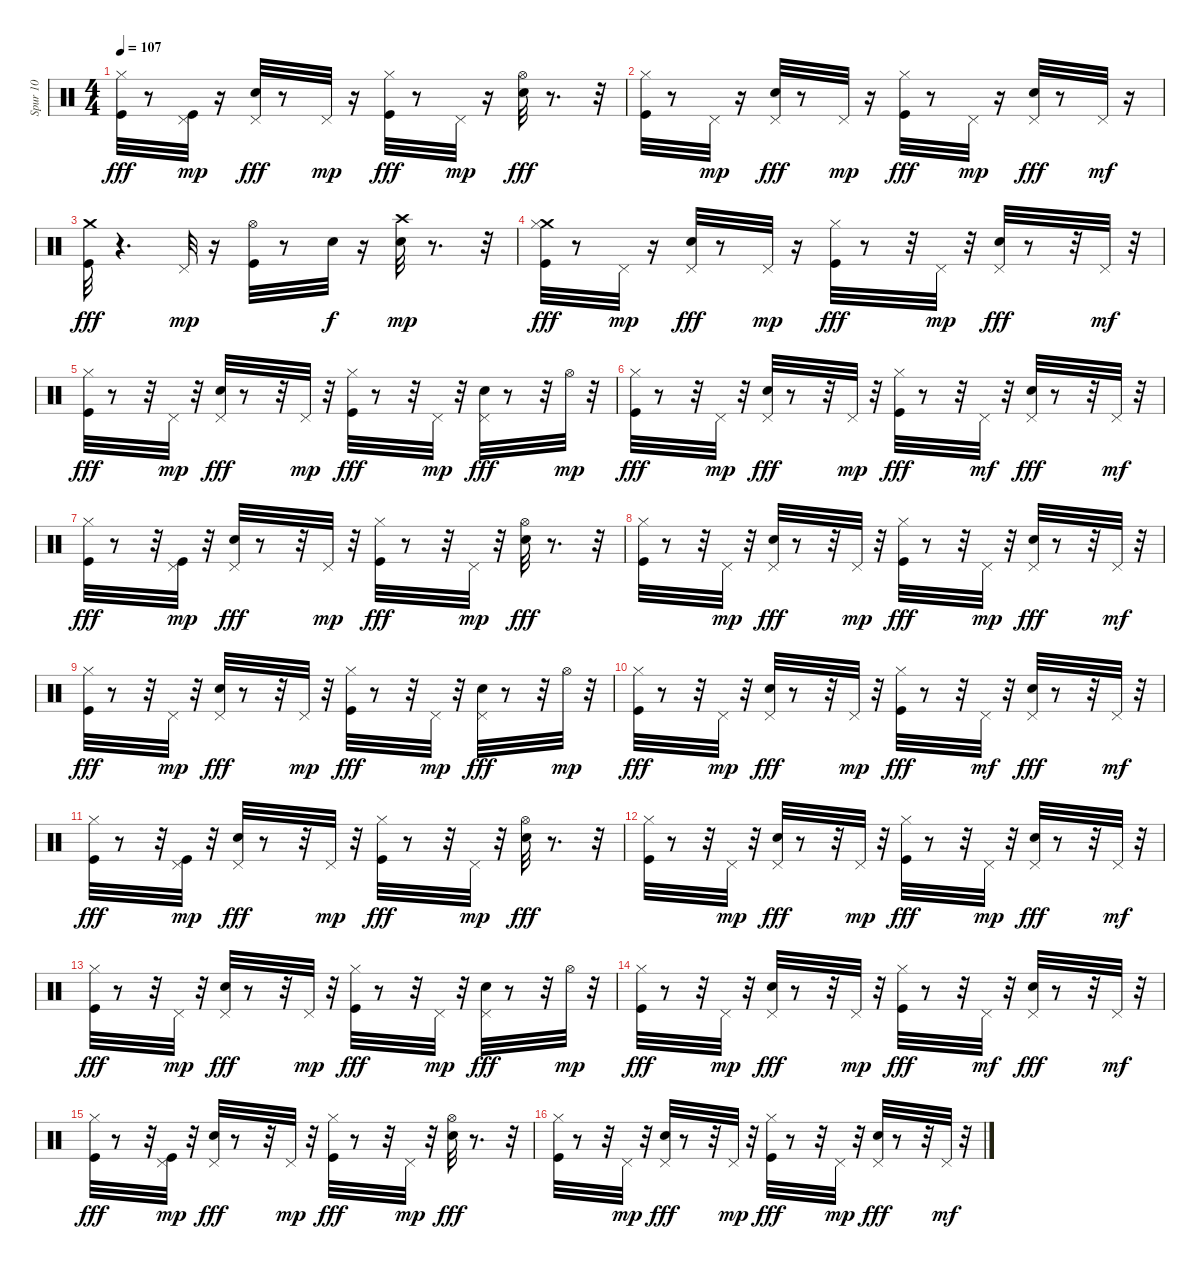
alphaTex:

\track ("Spur 10" "Spur 10") {instrument percussion}
\staff {score}
\articulation defaults
\ts (4 4)
\tempo 107
\clef neutral
\ks c
("Hi-Hat (closed)" "Kick (hit)").32{dy fff} r.8 ("Pedal Hi-Hat (hit)" "Kick (hit)").32{dy mp} r.16 ("Pedal Hi-Hat (hit)" "Snare (hit) 2").32{dy fff} r.8 "Pedal Hi-Hat (hit)".32{dy mp} r.16 ("Hi-Hat (closed)" "Kick (hit)").32{dy fff} r.8 "Pedal Hi-Hat (hit)".32{dy mp} r.16 ("Hi-Hat (open)" "Snare (hit) 2").32{dy fff} r.8{d} r.32 |
("Hi-Hat (closed)" "Kick (hit)").32 r.8 "Pedal Hi-Hat (hit)".32{dy mp} r.16 ("Pedal Hi-Hat (hit)" "Snare (hit) 2").32{dy fff} r.8 "Pedal Hi-Hat (hit)".32{dy mp} r.16 ("Hi-Hat (closed)" "Kick (hit)").32{dy fff} r.8 "Pedal Hi-Hat (hit)".32{dy mp} r.16 ("Pedal Hi-Hat (hit)" "Snare (hit) 2").32{dy fff} r.8 "Pedal Hi-Hat (hit)".32{dy mf} r.16 |
("Crash medium (hit)" "Kick (hit)").32{dy fff} r.4{d} "Pedal Hi-Hat (hit)".32{dy mp} r.16 ("Kick (hit)" "Hi-Hat (open)").32 r.8 "Snare (hit) 2".32{dy f} r.16 ("Snare (hit) 2" "Crash high (hit)").32{dy mp} r.8{d} r.32 |
("Crash medium (hit)" "Hi-Hat (closed)" "Kick (hit)").32{dy fff} r.8 "Pedal Hi-Hat (hit)".32{dy mp} r.16 ("Pedal Hi-Hat (hit)" "Snare (hit) 2").32{dy fff} r.8 "Pedal Hi-Hat (hit)".32{dy mp} r.16 ("Hi-Hat (closed)" "Kick (hit)").32{dy fff} r.8 r.32 "Pedal Hi-Hat (hit)".32{dy mp} r.32 ("Pedal Hi-Hat (hit)" "Snare (hit) 2").32{dy fff} r.8 r.32 "Pedal Hi-Hat (hit)".32{dy mf} r.32 |
("Hi-Hat (closed)" "Kick (hit)").32{dy fff} r.8 r.32 "Pedal Hi-Hat (hit)".32{dy mp} r.32 ("Pedal Hi-Hat (hit)" "Snare (hit) 2").32{dy fff} r.8 r.32 "Pedal Hi-Hat (hit)".32{dy mp} r.32 ("Hi-Hat (closed)" "Kick (hit)").32{dy fff} r.8 r.32 "Pedal Hi-Hat (hit)".32{dy mp} r.32 ("Pedal Hi-Hat (hit)" "Snare (hit) 2").32{dy fff} r.8 r.32 "Hi-Hat (open)".32{dy mp} r.32 |
("Hi-Hat (closed)" "Kick (hit)").32{dy fff} r.8 r.32 "Pedal Hi-Hat (hit)".32{dy mp} r.32 ("Pedal Hi-Hat (hit)" "Snare (hit) 2").32{dy fff} r.8 r.32 "Pedal Hi-Hat (hit)".32{dy mp} r.32 ("Hi-Hat (closed)" "Kick (hit)").32{dy fff} r.8 r.32 "Pedal Hi-Hat (hit)".32{dy mf} r.32 ("Pedal Hi-Hat (hit)" "Snare (hit) 2").32{dy fff} r.8 r.32 "Pedal Hi-Hat (hit)".32{dy mf} r.32 |
("Hi-Hat (closed)" "Kick (hit)").32{dy fff} r.8 r.32 ("Pedal Hi-Hat (hit)" "Kick (hit)").32{dy mp} r.32 ("Pedal Hi-Hat (hit)" "Snare (hit) 2").32{dy fff} r.8 r.32 "Pedal Hi-Hat (hit)".32{dy mp} r.32 ("Hi-Hat (closed)" "Kick (hit)").32{dy fff} r.8 r.32 "Pedal Hi-Hat (hit)".32{dy mp} r.32 ("Hi-Hat (open)" "Snare (hit) 2").32{dy fff} r.8{d} r.32 |
("Hi-Hat (closed)" "Kick (hit)").32 r.8 r.32 "Pedal Hi-Hat (hit)".32{dy mp} r.32 ("Pedal Hi-Hat (hit)" "Snare (hit) 2").32{dy fff} r.8 r.32 "Pedal Hi-Hat (hit)".32{dy mp} r.32 ("Hi-Hat (closed)" "Kick (hit)").32{dy fff} r.8 r.32 "Pedal Hi-Hat (hit)".32{dy mp} r.32 ("Pedal Hi-Hat (hit)" "Snare (hit) 2").32{dy fff} r.8 r.32 "Pedal Hi-Hat (hit)".32{dy mf} r.32 |
("Hi-Hat (closed)" "Kick (hit)").32{dy fff} r.8 r.32 "Pedal Hi-Hat (hit)".32{dy mp} r.32 ("Pedal Hi-Hat (hit)" "Snare (hit) 2").32{dy fff} r.8 r.32 "Pedal Hi-Hat (hit)".32{dy mp} r.32 ("Hi-Hat (closed)" "Kick (hit)").32{dy fff} r.8 r.32 "Pedal Hi-Hat (hit)".32{dy mp} r.32 ("Pedal Hi-Hat (hit)" "Snare (hit) 2").32{dy fff} r.8 r.32 "Hi-Hat (open)".32{dy mp} r.32 |
("Hi-Hat (closed)" "Kick (hit)").32{dy fff} r.8 r.32 "Pedal Hi-Hat (hit)".32{dy mp} r.32 ("Pedal Hi-Hat (hit)" "Snare (hit) 2").32{dy fff} r.8 r.32 "Pedal Hi-Hat (hit)".32{dy mp} r.32 ("Hi-Hat (closed)" "Kick (hit)").32{dy fff} r.8 r.32 "Pedal Hi-Hat (hit)".32{dy mf} r.32 ("Pedal Hi-Hat (hit)" "Snare (hit) 2").32{dy fff} r.8 r.32 "Pedal Hi-Hat (hit)".32{dy mf} r.32 |
("Hi-Hat (closed)" "Kick (hit)").32{dy fff} r.8 r.32 ("Pedal Hi-Hat (hit)" "Kick (hit)").32{dy mp} r.32 ("Pedal Hi-Hat (hit)" "Snare (hit) 2").32{dy fff} r.8 r.32 "Pedal Hi-Hat (hit)".32{dy mp} r.32 ("Hi-Hat (closed)" "Kick (hit)").32{dy fff} r.8 r.32 "Pedal Hi-Hat (hit)".32{dy mp} r.32 ("Hi-Hat (open)" "Snare (hit) 2").32{dy fff} r.8{d} r.32 |
("Hi-Hat (closed)" "Kick (hit)").32 r.8 r.32 "Pedal Hi-Hat (hit)".32{dy mp} r.32 ("Pedal Hi-Hat (hit)" "Snare (hit) 2").32{dy fff} r.8 r.32 "Pedal Hi-Hat (hit)".32{dy mp} r.32 ("Hi-Hat (closed)" "Kick (hit)").32{dy fff} r.8 r.32 "Pedal Hi-Hat (hit)".32{dy mp} r.32 ("Pedal Hi-Hat (hit)" "Snare (hit) 2").32{dy fff} r.8 r.32 "Pedal Hi-Hat (hit)".32{dy mf} r.32 |
("Hi-Hat (closed)" "Kick (hit)").32{dy fff} r.8 r.32 "Pedal Hi-Hat (hit)".32{dy mp} r.32 ("Pedal Hi-Hat (hit)" "Snare (hit) 2").32{dy fff} r.8 r.32 "Pedal Hi-Hat (hit)".32{dy mp} r.32 ("Hi-Hat (closed)" "Kick (hit)").32{dy fff} r.8 r.32 "Pedal Hi-Hat (hit)".32{dy mp} r.32 ("Pedal Hi-Hat (hit)" "Snare (hit) 2").32{dy fff} r.8 r.32 "Hi-Hat (open)".32{dy mp} r.32 |
("Hi-Hat (closed)" "Kick (hit)").32{dy fff} r.8 r.32 "Pedal Hi-Hat (hit)".32{dy mp} r.32 ("Pedal Hi-Hat (hit)" "Snare (hit) 2").32{dy fff} r.8 r.32 "Pedal Hi-Hat (hit)".32{dy mp} r.32 ("Hi-Hat (closed)" "Kick (hit)").32{dy fff} r.8 r.32 "Pedal Hi-Hat (hit)".32{dy mf} r.32 ("Pedal Hi-Hat (hit)" "Snare (hit) 2").32{dy fff} r.8 r.32 "Pedal Hi-Hat (hit)".32{dy mf} r.32 |
("Hi-Hat (closed)" "Kick (hit)").32{dy fff} r.8 r.32 ("Pedal Hi-Hat (hit)" "Kick (hit)").32{dy mp} r.32 ("Pedal Hi-Hat (hit)" "Snare (hit) 2").32{dy fff} r.8 r.32 "Pedal Hi-Hat (hit)".32{dy mp} r.32 ("Hi-Hat (closed)" "Kick (hit)").32{dy fff} r.8 r.32 "Pedal Hi-Hat (hit)".32{dy mp} r.32 ("Hi-Hat (open)" "Snare (hit) 2").32{dy fff} r.8{d} r.32 |
("Hi-Hat (closed)" "Kick (hit)").32 r.8 r.32 "Pedal Hi-Hat (hit)".32{dy mp} r.32 ("Pedal Hi-Hat (hit)" "Snare (hit) 2").32{dy fff} r.8 r.32 "Pedal Hi-Hat (hit)".32{dy mp} r.32 ("Hi-Hat (closed)" "Kick (hit)").32{dy fff} r.8 r.32 "Pedal Hi-Hat (hit)".32{dy mp} r.32 ("Pedal Hi-Hat (hit)" "Snare (hit) 2").32{dy fff} r.8 r.32 "Pedal Hi-Hat (hit)".32{dy mf} r.32
